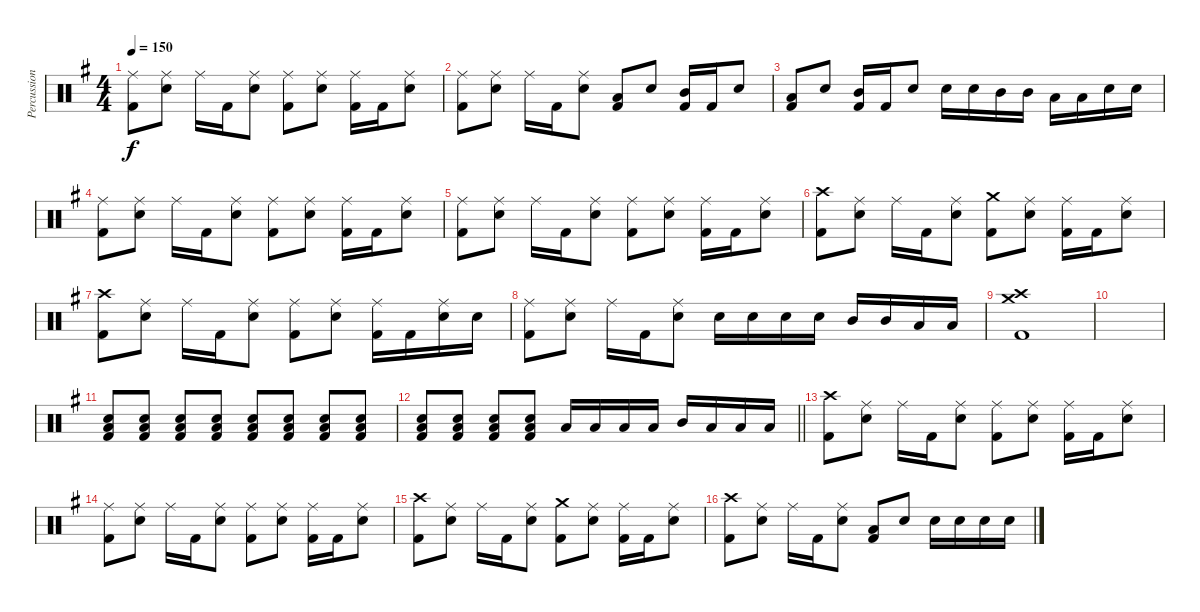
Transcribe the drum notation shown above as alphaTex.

\track ("Percussion" "Percussion") {instrument percussion}
\staff {score}
\articulation defaults
\ts (4 4)
\tempo 150
\clef neutral
\ks g
("Ride (middle)" "Kick (hit) 2").8{dy f} ("Ride (middle)" "Electric Snare (hit)").8 "Ride (middle)".16 "Kick (hit) 2".16 ("Ride (middle)" "Electric Snare (hit)").8 ("Ride (middle)" "Kick (hit) 2").8 ("Ride (middle)" "Electric Snare (hit)").8 ("Ride (middle)" "Kick (hit) 2").16 "Kick (hit) 2".16 ("Ride (middle)" "Electric Snare (hit)").8 |
("Ride (middle)" "Kick (hit) 2").8 ("Ride (middle)" "Electric Snare (hit)").8 "Ride (middle)".16 "Kick (hit) 2".16 ("Ride (middle)" "Electric Snare (hit)").8 ("Low Tom (hit)" "Kick (hit) 2").8 "Electric Snare (hit)".8 ("Mid Tom (hit)" "Kick (hit) 2").16 "Kick (hit) 2".16 "Electric Snare (hit)".8 |
("Low Tom (hit)" "Kick (hit) 2").8 "Electric Snare (hit)".8 ("Mid Tom (hit)" "Kick (hit) 2").16 "Kick (hit) 2".16 "Electric Snare (hit)".8 "Electric Snare (hit)".16 "Electric Snare (hit)".16 "Mid Tom (hit)".16 "Mid Tom (hit)".16 "Low Tom (hit)".16 "Low Tom (hit)".16 "Electric Snare (hit)".16 "Electric Snare (hit)".16 |
("Ride (middle)" "Kick (hit) 2").8 ("Ride (middle)" "Electric Snare (hit)").8 "Ride (middle)".16 "Kick (hit) 2".16 ("Ride (middle)" "Electric Snare (hit)").8 ("Ride (middle)" "Kick (hit) 2").8 ("Ride (middle)" "Electric Snare (hit)").8 ("Ride (middle)" "Kick (hit) 2").16 "Kick (hit) 2".16 ("Ride (middle)" "Electric Snare (hit)").8 |
("Ride (middle)" "Kick (hit) 2").8 ("Ride (middle)" "Electric Snare (hit)").8 "Ride (middle)".16 "Kick (hit) 2".16 ("Ride (middle)" "Electric Snare (hit)").8 ("Ride (middle)" "Kick (hit) 2").8 ("Ride (middle)" "Electric Snare (hit)").8 ("Ride (middle)" "Kick (hit) 2").16 "Kick (hit) 2".16 ("Ride (middle)" "Electric Snare (hit)").8 |
("Crash high (hit)" "Kick (hit) 2").8 ("Ride (middle)" "Electric Snare (hit)").8 "Ride (middle)".16 "Kick (hit) 2".16 ("Ride (middle)" "Electric Snare (hit)").8 ("Crash medium (hit)" "Kick (hit) 2").8 ("Ride (middle)" "Electric Snare (hit)").8 ("Ride (middle)" "Kick (hit) 2").16 "Kick (hit) 2".16 ("Ride (middle)" "Electric Snare (hit)").8 |
("Crash high (hit)" "Kick (hit) 2").8 ("Ride (middle)" "Electric Snare (hit)").8 "Ride (middle)".16 "Kick (hit) 2".16 ("Ride (middle)" "Electric Snare (hit)").8 ("Ride (middle)" "Kick (hit) 2").8 ("Ride (middle)" "Electric Snare (hit)").8 ("Ride (middle)" "Kick (hit) 2").16 "Kick (hit) 2".16 ("Ride (middle)" "Electric Snare (hit)").16 "Electric Snare (hit)".16 |
("Ride (middle)" "Kick (hit) 2").8 ("Ride (middle)" "Electric Snare (hit)").8 "Ride (middle)".16 "Kick (hit) 2".16 ("Ride (middle)" "Electric Snare (hit)").8 "Electric Snare (hit)".16 "Electric Snare (hit)".16 "Electric Snare (hit)".16 "Electric Snare (hit)".16 "Mid Tom (hit)".16 "Mid Tom (hit)".16 "Low Tom (hit)".16 "Low Tom (hit)".16 |
("Crash high (hit)" "Crash medium (hit)" "Kick (hit) 2").1 |
|
("Low Tom (hit)" "Electric Snare (hit)" "Kick (hit) 2").8 ("Low Tom (hit)" "Electric Snare (hit)" "Kick (hit) 2").8 ("Low Tom (hit)" "Electric Snare (hit)" "Kick (hit) 2").8 ("Low Tom (hit)" "Electric Snare (hit)" "Kick (hit) 2").8 ("Low Tom (hit)" "Electric Snare (hit)" "Kick (hit) 2").8 ("Low Tom (hit)" "Electric Snare (hit)" "Kick (hit) 2").8 ("Low Tom (hit)" "Electric Snare (hit)" "Kick (hit) 2").8 ("Low Tom (hit)" "Electric Snare (hit)" "Kick (hit) 2").8 |
\barLineRight lightlight
("Low Tom (hit)" "Electric Snare (hit)" "Kick (hit) 2").8 ("Low Tom (hit)" "Electric Snare (hit)" "Kick (hit) 2").8 ("Low Tom (hit)" "Electric Snare (hit)" "Kick (hit) 2").8 ("Low Tom (hit)" "Electric Snare (hit)" "Kick (hit) 2").8 "Low Tom (hit)".16 "Low Tom (hit)".16 "Low Tom (hit)".16 "Low Tom (hit)".16 "Mid Tom (hit)".16 "Low Tom (hit)".16 "Low Tom (hit)".16 "Low Tom (hit)".16 |
("Crash high (hit)" "Kick (hit) 2").8 ("Ride (middle)" "Electric Snare (hit)").8 "Ride (middle)".16 "Kick (hit) 2".16 ("Ride (middle)" "Electric Snare (hit)").8 ("Ride (middle)" "Kick (hit) 2").8 ("Ride (middle)" "Electric Snare (hit)").8 ("Ride (middle)" "Kick (hit) 2").16 "Kick (hit) 2".16 ("Ride (middle)" "Electric Snare (hit)").8 |
("Ride (middle)" "Kick (hit) 2").8 ("Ride (middle)" "Electric Snare (hit)").8 "Ride (middle)".16 "Kick (hit) 2".16 ("Ride (middle)" "Electric Snare (hit)").8 ("Ride (middle)" "Kick (hit) 2").8 ("Ride (middle)" "Electric Snare (hit)").8 ("Ride (middle)" "Kick (hit) 2").16 "Kick (hit) 2".16 ("Ride (middle)" "Electric Snare (hit)").8 |
("Crash high (hit)" "Kick (hit) 2").8 ("Ride (middle)" "Electric Snare (hit)").8 "Ride (middle)".16 "Kick (hit) 2".16 ("Ride (middle)" "Electric Snare (hit)").8 ("Crash medium (hit)" "Kick (hit) 2").8 ("Ride (middle)" "Electric Snare (hit)").8 ("Ride (middle)" "Kick (hit) 2").16 "Kick (hit) 2".16 ("Ride (middle)" "Electric Snare (hit)").8 |
("Crash high (hit)" "Kick (hit) 2").8 ("Ride (middle)" "Electric Snare (hit)").8 "Ride (middle)".16 "Kick (hit) 2".16 ("Ride (middle)" "Electric Snare (hit)").8 ("Low Tom (hit)" "Kick (hit) 2").8 "Electric Snare (hit)".8 "Electric Snare (hit)".16 "Electric Snare (hit)".16 "Electric Snare (hit)".16 "Electric Snare (hit)".16
